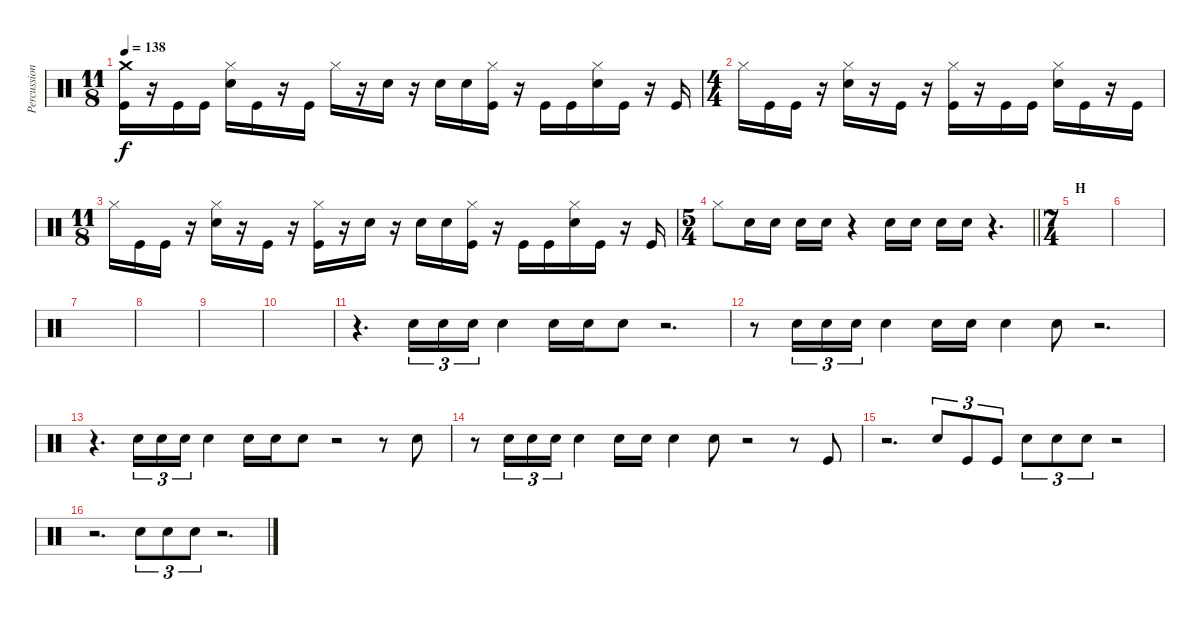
\track ("Percussion" "Percussion") {instrument percussion}
\staff {score}
\articulation defaults
\ts (11 8)
\tempo 138
\clef neutral
\ks c
("Kick (hit)" "Crash medium (hit)").16{dy f} r.16 "Kick (hit)".16 "Kick (hit)".16 ("Snare (hit) 2" "Hi-Hat (closed)").16 "Kick (hit)".16 r.16 "Kick (hit)".16 "Hi-Hat (closed)".16 r.16 "Snare (hit) 2".16 r.16 "Snare (hit) 2".16 "Snare (hit) 2".16 ("Kick (hit)" "Hi-Hat (closed)").16 r.16 "Kick (hit)".16 "Kick (hit)".16 ("Snare (hit) 2" "Hi-Hat (closed)").16 "Kick (hit)".16 r.16 "Kick (hit)".16 |
\ts (4 4)
"Hi-Hat (closed)".16 "Kick (hit)".16 "Kick (hit)".16 r.16 ("Snare (hit) 2" "Hi-Hat (closed)").16 r.16 "Kick (hit)".16 r.16 ("Kick (hit)" "Hi-Hat (closed)").16 r.16 "Kick (hit)".16 "Kick (hit)".16 ("Snare (hit) 2" "Hi-Hat (closed)").16 "Kick (hit)".16 r.16 "Kick (hit)".16 |
\ts (11 8)
"Hi-Hat (closed)".16 "Kick (hit)".16 "Kick (hit)".16 r.16 ("Snare (hit) 2" "Hi-Hat (closed)").16 r.16 "Kick (hit)".16 r.16 ("Kick (hit)" "Hi-Hat (closed)").16 r.16 "Snare (hit) 2".16 r.16 "Snare (hit) 2".16 "Snare (hit) 2".16 ("Kick (hit)" "Hi-Hat (closed)").16 r.16 "Kick (hit)".16 "Kick (hit)".16 ("Snare (hit) 2" "Hi-Hat (closed)").16 "Kick (hit)".16 r.16 "Kick (hit)".16 |
\ts (5 4)
\barLineRight lightlight "Hi-Hat (closed)".8 "Snare (hit) 2".16 "Snare (hit) 2".16 "Snare (hit) 2".16 "Snare (hit) 2".16
r.4 "Snare (hit) 2".16 "Snare (hit) 2".16 "Snare (hit) 2".16 "Snare (hit) 2".16 r.4{d} |
\ts (7 4)
\section ("" "H")
|
|
|
|
|
|
r.4{d} "Snare (hit) 2".16{tu (3 2)} "Snare (hit) 2".16{tu (3 2)} "Snare (hit) 2".16{tu (3 2)} "Snare (hit) 2".4 "Snare (hit) 2".16 "Snare (hit) 2".16 "Snare (hit) 2".8 r.2{d} |
r.8 "Snare (hit) 2".16{tu (3 2)} "Snare (hit) 2".16{tu (3 2)} "Snare (hit) 2".16{tu (3 2)} "Snare (hit) 2".4 "Snare (hit) 2".16 "Snare (hit) 2".16 "Snare (hit) 2".4 "Snare (hit) 2".8 r.2{d} |
r.4{d} "Snare (hit) 2".16{tu (3 2)} "Snare (hit) 2".16{tu (3 2)} "Snare (hit) 2".16{tu (3 2)} "Snare (hit) 2".4 "Snare (hit) 2".16 "Snare (hit) 2".16 "Snare (hit) 2".8 r.2 r.8 "Snare (hit) 2".8 |
r.8 "Snare (hit) 2".16{tu (3 2)} "Snare (hit) 2".16{tu (3 2)} "Snare (hit) 2".16{tu (3 2)} "Snare (hit) 2".4 "Snare (hit) 2".16 "Snare (hit) 2".16 "Snare (hit) 2".4 "Snare (hit) 2".8 r.2 r.8 "Kick (hit)".8 |
r.2{d} "Snare (hit) 2".8{tu (3 2)} "Kick (hit)".8{tu (3 2)} "Kick (hit)".8{tu (3 2)} "Snare (hit) 2".8{tu (3 2)} "Snare (hit) 2".8{tu (3 2)} "Snare (hit) 2".8{tu (3 2)} r.2 |
r.2{d} "Snare (hit) 2".8{tu (3 2)} "Snare (hit) 2".8{tu (3 2)} "Snare (hit) 2".8{tu (3 2)} r.2{d}
